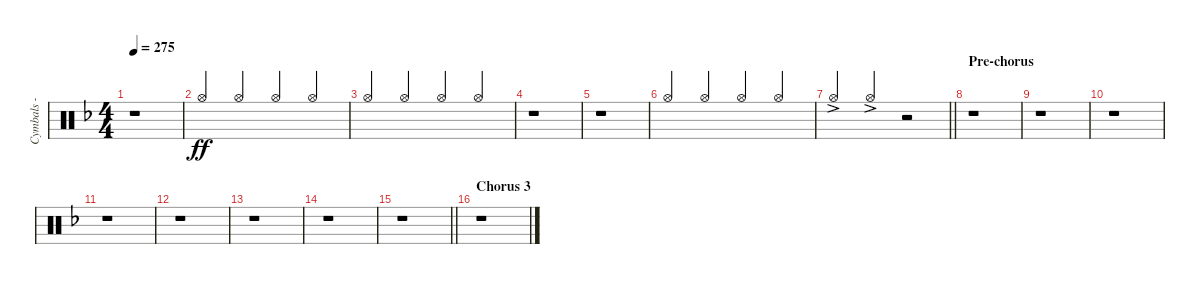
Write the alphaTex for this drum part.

\track ("Cymbals - hi-hat" "Cymbals - ") {instrument percussion}
\staff {score}
\articulation defaults
\ts (4 4)
\tempo 275
\clef neutral
\ks dminor
r.1{dy ff} |
"Hi-Hat (open)".4{beam Up} "Hi-Hat (open)".4{beam Up} "Hi-Hat (open)".4{beam Up} "Hi-Hat (open)".4{beam Up} |
"Hi-Hat (open)".4{beam Up} "Hi-Hat (open)".4{beam Up} "Hi-Hat (open)".4{beam Up} "Hi-Hat (open)".4{beam Up} |
r.1 |
r.1 |
"Hi-Hat (open)".4{beam Up} "Hi-Hat (open)".4{beam Up} "Hi-Hat (open)".4{beam Up} "Hi-Hat (open)".4{beam Up} |
\barLineRight lightlight "Hi-Hat (open)"{ac}.4{beam Up} "Hi-Hat (open)"{ac}.4{beam Up}
r.2 |
\section ("" "Pre-chorus")
r.1 |
r.1 |
r.1 |
r.1 |
r.1 |
r.1 |
r.1 |
\barLineRight lightlight
r.1 |
\section ("" "Chorus 3")
r.1
